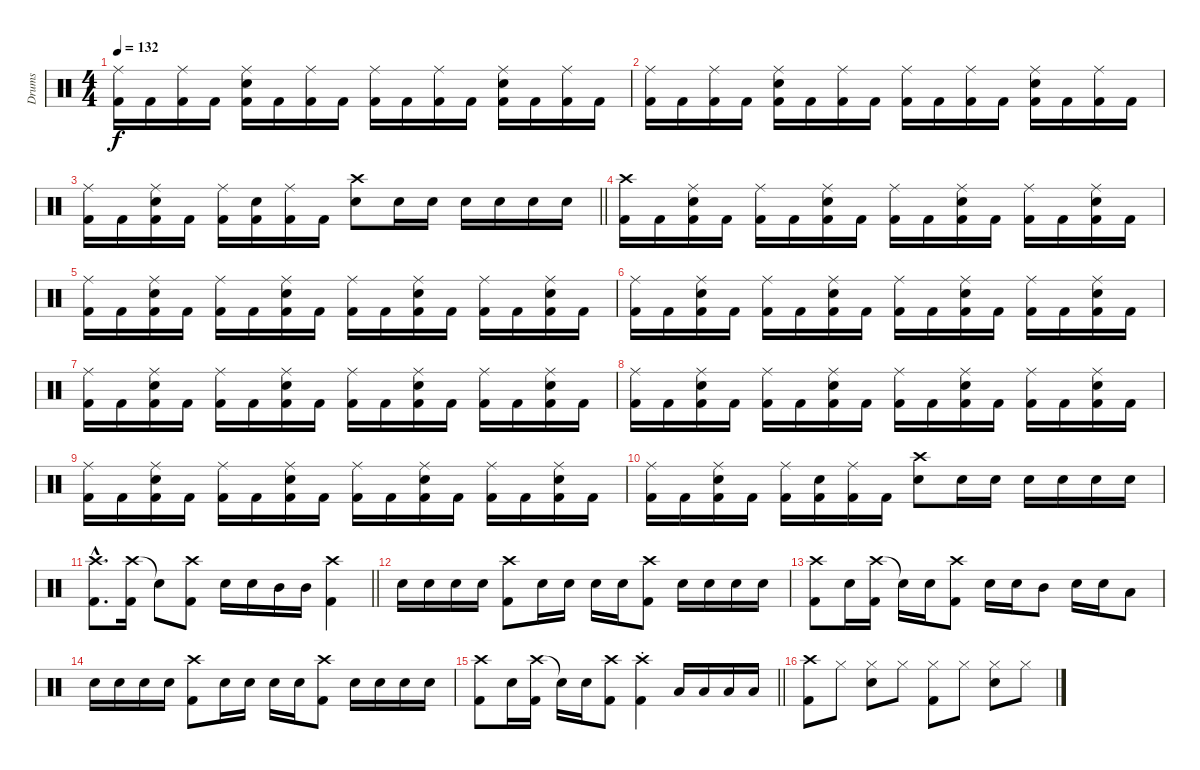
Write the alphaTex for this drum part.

\track ("Drums" "Drums") {instrument percussion}
\staff {score}
\articulation defaults
\ts (4 4)
\tempo 132
\clef neutral
\ks c
("Ride (middle)" "Kick (hit) 2").16{dy f} "Kick (hit) 2".16 ("Ride (middle)" "Kick (hit) 2").16 "Kick (hit) 2".16 ("Ride (middle)" "Snare (hit) 2" "Kick (hit) 2").16 "Kick (hit) 2".16 ("Ride (middle)" "Kick (hit) 2").16 "Kick (hit) 2".16 ("Ride (middle)" "Kick (hit) 2").16 "Kick (hit) 2".16 ("Ride (middle)" "Kick (hit) 2").16 "Kick (hit) 2".16 ("Ride (middle)" "Snare (hit) 2" "Kick (hit) 2").16 "Kick (hit) 2".16 ("Ride (middle)" "Kick (hit) 2").16 "Kick (hit) 2".16 |
("Ride (middle)" "Kick (hit) 2").16 "Kick (hit) 2".16 ("Ride (middle)" "Kick (hit) 2").16 "Kick (hit) 2".16 ("Ride (middle)" "Snare (hit) 2" "Kick (hit) 2").16 "Kick (hit) 2".16 ("Ride (middle)" "Kick (hit) 2").16 "Kick (hit) 2".16 ("Ride (middle)" "Kick (hit) 2").16 "Kick (hit) 2".16 ("Ride (middle)" "Kick (hit) 2").16 "Kick (hit) 2".16 ("Ride (middle)" "Snare (hit) 2" "Kick (hit) 2").16 "Kick (hit) 2".16 ("Ride (middle)" "Kick (hit) 2").16 "Kick (hit) 2".16 |
\barLineRight lightlight
("Ride (middle)" "Kick (hit) 2").16 "Kick (hit) 2".16 ("Ride (middle)" "Snare (hit) 2" "Kick (hit) 2").16 "Kick (hit) 2".16 ("Ride (middle)" "Kick (hit) 2").16 ("Snare (hit) 2" "Kick (hit) 2").16 ("Ride (middle)" "Kick (hit) 2").16 "Kick (hit) 2".16 ("Crash high (hit)" "Snare (hit) 2").8 "Snare (hit) 2".16 "Snare (hit) 2".16 "Snare (hit) 2".16 "Snare (hit) 2".16 "Snare (hit) 2".16 "Snare (hit) 2".16 |
("Crash high (hit)" "Kick (hit) 2").16 "Kick (hit) 2".16 ("Ride (middle)" "Snare (hit) 2" "Kick (hit) 2").16 "Kick (hit) 2".16 ("Ride (middle)" "Kick (hit) 2").16 "Kick (hit) 2".16 ("Ride (middle)" "Snare (hit) 2" "Kick (hit) 2").16 "Kick (hit) 2".16 ("Ride (middle)" "Kick (hit) 2").16 "Kick (hit) 2".16 ("Ride (middle)" "Snare (hit) 2" "Kick (hit) 2").16 "Kick (hit) 2".16 ("Ride (middle)" "Kick (hit) 2").16 "Kick (hit) 2".16 ("Ride (middle)" "Snare (hit) 2" "Kick (hit) 2").16 "Kick (hit) 2".16 |
("Ride (middle)" "Kick (hit) 2").16 "Kick (hit) 2".16 ("Ride (middle)" "Snare (hit) 2" "Kick (hit) 2").16 "Kick (hit) 2".16 ("Ride (middle)" "Kick (hit) 2").16 "Kick (hit) 2".16 ("Ride (middle)" "Snare (hit) 2" "Kick (hit) 2").16 "Kick (hit) 2".16 ("Ride (middle)" "Kick (hit) 2").16 "Kick (hit) 2".16 ("Ride (middle)" "Snare (hit) 2" "Kick (hit) 2").16 "Kick (hit) 2".16 ("Ride (middle)" "Kick (hit) 2").16 "Kick (hit) 2".16 ("Ride (middle)" "Snare (hit) 2" "Kick (hit) 2").16 "Kick (hit) 2".16 |
("Ride (middle)" "Kick (hit) 2").16 "Kick (hit) 2".16 ("Ride (middle)" "Snare (hit) 2" "Kick (hit) 2").16 "Kick (hit) 2".16 ("Ride (middle)" "Kick (hit) 2").16 "Kick (hit) 2".16 ("Ride (middle)" "Snare (hit) 2" "Kick (hit) 2").16 "Kick (hit) 2".16 ("Ride (middle)" "Kick (hit) 2").16 "Kick (hit) 2".16 ("Ride (middle)" "Snare (hit) 2" "Kick (hit) 2").16 "Kick (hit) 2".16 ("Ride (middle)" "Kick (hit) 2").16 "Kick (hit) 2".16 ("Ride (middle)" "Snare (hit) 2" "Kick (hit) 2").16 "Kick (hit) 2".16 |
("Ride (middle)" "Kick (hit) 2").16 "Kick (hit) 2".16 ("Ride (middle)" "Snare (hit) 2" "Kick (hit) 2").16 "Kick (hit) 2".16 ("Ride (middle)" "Kick (hit) 2").16 "Kick (hit) 2".16 ("Ride (middle)" "Snare (hit) 2" "Kick (hit) 2").16 "Kick (hit) 2".16 ("Ride (middle)" "Kick (hit) 2").16 "Kick (hit) 2".16 ("Ride (middle)" "Snare (hit) 2" "Kick (hit) 2").16 "Kick (hit) 2".16 ("Ride (middle)" "Kick (hit) 2").16 "Kick (hit) 2".16 ("Ride (middle)" "Snare (hit) 2" "Kick (hit) 2").16 "Kick (hit) 2".16 |
("Ride (middle)" "Kick (hit) 2").16 "Kick (hit) 2".16 ("Ride (middle)" "Snare (hit) 2" "Kick (hit) 2").16 "Kick (hit) 2".16 ("Ride (middle)" "Kick (hit) 2").16 "Kick (hit) 2".16 ("Ride (middle)" "Snare (hit) 2" "Kick (hit) 2").16 "Kick (hit) 2".16 ("Ride (middle)" "Kick (hit) 2").16 "Kick (hit) 2".16 ("Ride (middle)" "Snare (hit) 2" "Kick (hit) 2").16 "Kick (hit) 2".16 ("Ride (middle)" "Kick (hit) 2").16 "Kick (hit) 2".16 ("Ride (middle)" "Snare (hit) 2" "Kick (hit) 2").16 "Kick (hit) 2".16 |
("Ride (middle)" "Kick (hit) 2").16 "Kick (hit) 2".16 ("Ride (middle)" "Snare (hit) 2" "Kick (hit) 2").16 "Kick (hit) 2".16 ("Ride (middle)" "Kick (hit) 2").16 "Kick (hit) 2".16 ("Ride (middle)" "Snare (hit) 2" "Kick (hit) 2").16 "Kick (hit) 2".16 ("Ride (middle)" "Kick (hit) 2").16 "Kick (hit) 2".16 ("Ride (middle)" "Snare (hit) 2" "Kick (hit) 2").16 "Kick (hit) 2".16 ("Ride (middle)" "Kick (hit) 2").16 "Kick (hit) 2".16 ("Ride (middle)" "Snare (hit) 2" "Kick (hit) 2").16 "Kick (hit) 2".16 |
("Ride (middle)" "Kick (hit) 2").16 "Kick (hit) 2".16 ("Ride (middle)" "Snare (hit) 2" "Kick (hit) 2").16 "Kick (hit) 2".16 ("Ride (middle)" "Kick (hit) 2").16 ("Snare (hit) 2" "Kick (hit) 2").16 ("Ride (middle)" "Kick (hit) 2").16 "Kick (hit) 2".16 ("Crash high (hit)" "Snare (hit) 2").8 "Snare (hit) 2".16 "Snare (hit) 2".16 "Snare (hit) 2".16 "Snare (hit) 2".16 "Snare (hit) 2".16 "Snare (hit) 2".16 |
\barLineRight lightlight
("Crash high (hit)"{hac} "Kick (hit) 2"{hac}).8{d} ("Crash high (hit)" "Kick (hit) 2").16 "Snare (hit)"{t}.8 ("Crash high (hit)" "Kick (hit) 2").8 "Snare (hit) 2".16 "Snare (hit) 2".16 "Mid Tom (hit)".16 "Mid Tom (hit)".16 ("Crash high (hit)" "Kick (hit) 2").4 |
"Snare (hit) 2".16 "Snare (hit) 2".16 "Snare (hit) 2".16 "Snare (hit) 2".16 ("Crash high (hit)" "Kick (hit) 2").8 "Snare (hit) 2".16 "Snare (hit) 2".16 "Snare (hit) 2".16 "Snare (hit) 2".16 ("Crash high (hit)" "Kick (hit) 2").8 "Snare (hit) 2".16 "Snare (hit) 2".16 "Snare (hit) 2".16 "Snare (hit) 2".16 |
("Crash high (hit)" "Kick (hit) 2").8 "Snare (hit) 2".16 ("Crash high (hit)" "Kick (hit) 2").16 "Snare (hit)"{t}.16 "Snare (hit) 2".16 ("Crash high (hit)" "Kick (hit) 2").8 "Snare (hit) 2".16 "Snare (hit) 2".16 "Mid Tom (hit)".8 "Snare (hit) 2".16 "Snare (hit) 2".16 "Low Tom (hit)".8 |
"Snare (hit) 2".16 "Snare (hit) 2".16 "Snare (hit) 2".16 "Snare (hit) 2".16 ("Crash high (hit)" "Kick (hit) 2").8 "Snare (hit) 2".16 "Snare (hit) 2".16 "Snare (hit) 2".16 "Snare (hit) 2".16 ("Crash high (hit)" "Kick (hit) 2").8 "Snare (hit) 2".16 "Snare (hit) 2".16 "Snare (hit) 2".16 "Snare (hit) 2".16 |
\barLineRight lightlight
("Crash high (hit)" "Kick (hit) 2").8 "Snare (hit) 2".16 ("Crash high (hit)" "Kick (hit) 2").16 "Snare (hit)"{t}.16 "Snare (hit) 2".16 ("Crash high (hit)" "Kick (hit) 2").8 ("Crash high (hit)"{st} "Kick (hit) 2"{st}).4 "Low Tom (hit)".16 "Low Tom (hit)".16 "Low Floor Tom (hit)".16 "Low Floor Tom (hit)".16 |
("Crash high (hit)" "Kick (hit) 2").8 "Hi-Hat (closed)".8 ("Hi-Hat (closed)" "Snare (hit) 2").8 "Hi-Hat (closed)".8 ("Hi-Hat (closed)" "Kick (hit) 2").8 "Hi-Hat (closed)".8 ("Hi-Hat (closed)" "Snare (hit) 2").8 "Hi-Hat (closed)".8
